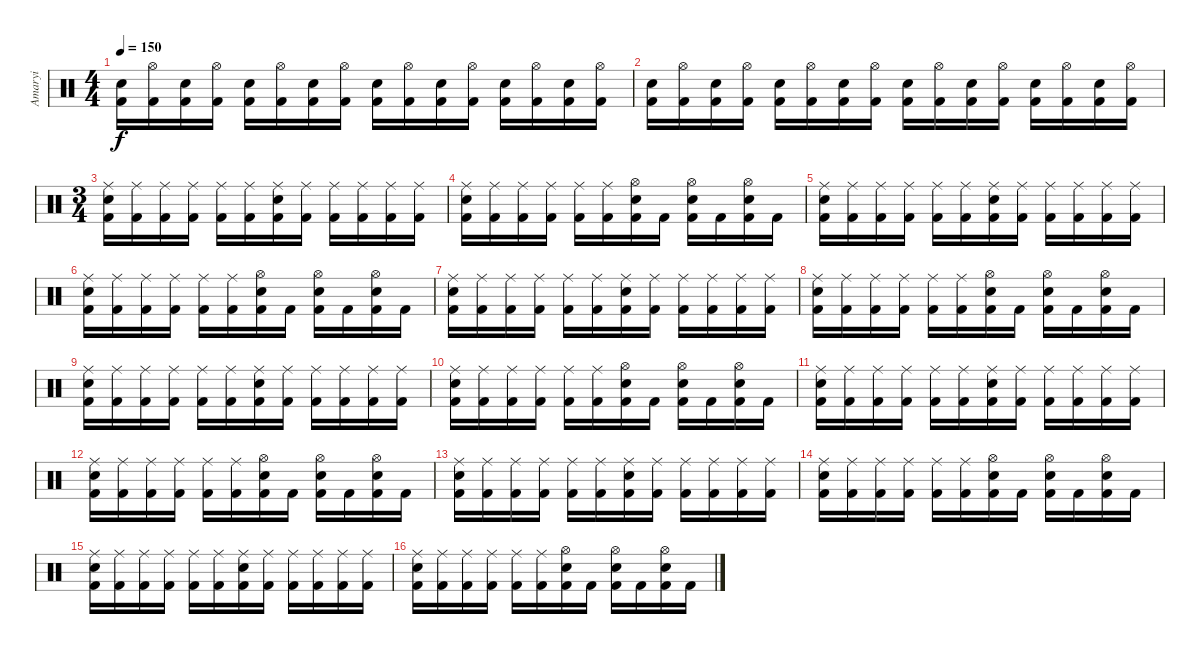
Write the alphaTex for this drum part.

\track ("Amaryi" "Amaryi") {instrument percussion}
\staff {score}
\articulation defaults
\ts (4 4)
\tempo 150
\clef neutral
\ks c
("Snare (hit) 2" "Kick (hit) 2").16{dy f} ("Hi-Hat (open)" "Kick (hit) 2").16 ("Snare (hit) 2" "Kick (hit) 2").16 ("Hi-Hat (open)" "Kick (hit) 2").16 ("Snare (hit) 2" "Kick (hit) 2").16 ("Hi-Hat (open)" "Kick (hit) 2").16 ("Snare (hit) 2" "Kick (hit) 2").16 ("Hi-Hat (open)" "Kick (hit) 2").16 ("Snare (hit) 2" "Kick (hit) 2").16 ("Hi-Hat (open)" "Kick (hit) 2").16 ("Snare (hit) 2" "Kick (hit) 2").16 ("Hi-Hat (open)" "Kick (hit) 2").16 ("Snare (hit) 2" "Kick (hit) 2").16 ("Hi-Hat (open)" "Kick (hit) 2").16 ("Snare (hit) 2" "Kick (hit) 2").16 ("Hi-Hat (open)" "Kick (hit) 2").16 |
("Snare (hit) 2" "Kick (hit) 2").16 ("Hi-Hat (open)" "Kick (hit) 2").16 ("Snare (hit) 2" "Kick (hit) 2").16 ("Hi-Hat (open)" "Kick (hit) 2").16 ("Snare (hit) 2" "Kick (hit) 2").16 ("Hi-Hat (open)" "Kick (hit) 2").16 ("Snare (hit) 2" "Kick (hit) 2").16 ("Hi-Hat (open)" "Kick (hit) 2").16 ("Snare (hit) 2" "Kick (hit) 2").16 ("Hi-Hat (open)" "Kick (hit) 2").16 ("Snare (hit) 2" "Kick (hit) 2").16 ("Hi-Hat (open)" "Kick (hit) 2").16 ("Snare (hit) 2" "Kick (hit) 2").16 ("Hi-Hat (open)" "Kick (hit) 2").16 ("Snare (hit) 2" "Kick (hit) 2").16 ("Hi-Hat (open)" "Kick (hit) 2").16 |
\ts (3 4)
("Ride (middle)" "Snare (hit) 2" "Kick (hit) 2").16 ("Ride (middle)" "Kick (hit) 2").16 ("Ride (middle)" "Kick (hit) 2").16 ("Ride (middle)" "Kick (hit) 2").16 ("Ride (middle)" "Kick (hit) 2").16 ("Ride (middle)" "Kick (hit) 2").16 ("Ride (middle)" "Snare (hit) 2" "Kick (hit) 2").16 ("Ride (middle)" "Kick (hit) 2").16 ("Ride (middle)" "Kick (hit) 2").16 ("Ride (middle)" "Kick (hit) 2").16 ("Ride (middle)" "Kick (hit) 2").16 ("Ride (middle)" "Kick (hit) 2").16 |
("Ride (middle)" "Snare (hit) 2" "Kick (hit) 2").16 ("Ride (middle)" "Kick (hit) 2").16 ("Ride (middle)" "Kick (hit) 2").16 ("Ride (middle)" "Kick (hit) 2").16 ("Ride (middle)" "Kick (hit) 2").16 ("Ride (middle)" "Kick (hit) 2").16 ("Hi-Hat (open)" "Snare (hit) 2" "Kick (hit) 2").16 "Kick (hit) 2".16 ("Hi-Hat (open)" "Snare (hit) 2" "Kick (hit) 2").16 "Kick (hit) 2".16 ("Hi-Hat (open)" "Snare (hit) 2" "Kick (hit) 2").16 "Kick (hit) 2".16 |
("Ride (middle)" "Snare (hit) 2" "Kick (hit) 2").16 ("Ride (middle)" "Kick (hit) 2").16 ("Ride (middle)" "Kick (hit) 2").16 ("Ride (middle)" "Kick (hit) 2").16 ("Ride (middle)" "Kick (hit) 2").16 ("Ride (middle)" "Kick (hit) 2").16 ("Ride (middle)" "Snare (hit) 2" "Kick (hit) 2").16 ("Ride (middle)" "Kick (hit) 2").16 ("Ride (middle)" "Kick (hit) 2").16 ("Ride (middle)" "Kick (hit) 2").16 ("Ride (middle)" "Kick (hit) 2").16 ("Ride (middle)" "Kick (hit) 2").16 |
("Ride (middle)" "Snare (hit) 2" "Kick (hit) 2").16 ("Ride (middle)" "Kick (hit) 2").16 ("Ride (middle)" "Kick (hit) 2").16 ("Ride (middle)" "Kick (hit) 2").16 ("Ride (middle)" "Kick (hit) 2").16 ("Ride (middle)" "Kick (hit) 2").16 ("Hi-Hat (open)" "Snare (hit) 2" "Kick (hit) 2").16 "Kick (hit) 2".16 ("Hi-Hat (open)" "Snare (hit) 2" "Kick (hit) 2").16 "Kick (hit) 2".16 ("Hi-Hat (open)" "Snare (hit) 2" "Kick (hit) 2").16 "Kick (hit) 2".16 |
("Ride (middle)" "Snare (hit) 2" "Kick (hit) 2").16 ("Ride (middle)" "Kick (hit) 2").16 ("Ride (middle)" "Kick (hit) 2").16 ("Ride (middle)" "Kick (hit) 2").16 ("Ride (middle)" "Kick (hit) 2").16 ("Ride (middle)" "Kick (hit) 2").16 ("Ride (middle)" "Snare (hit) 2" "Kick (hit) 2").16 ("Ride (middle)" "Kick (hit) 2").16 ("Ride (middle)" "Kick (hit) 2").16 ("Ride (middle)" "Kick (hit) 2").16 ("Ride (middle)" "Kick (hit) 2").16 ("Ride (middle)" "Kick (hit) 2").16 |
("Ride (middle)" "Snare (hit) 2" "Kick (hit) 2").16 ("Ride (middle)" "Kick (hit) 2").16 ("Ride (middle)" "Kick (hit) 2").16 ("Ride (middle)" "Kick (hit) 2").16 ("Ride (middle)" "Kick (hit) 2").16 ("Ride (middle)" "Kick (hit) 2").16 ("Hi-Hat (open)" "Snare (hit) 2" "Kick (hit) 2").16 "Kick (hit) 2".16 ("Hi-Hat (open)" "Snare (hit) 2" "Kick (hit) 2").16 "Kick (hit) 2".16 ("Hi-Hat (open)" "Snare (hit) 2" "Kick (hit) 2").16 "Kick (hit) 2".16 |
("Ride (middle)" "Snare (hit) 2" "Kick (hit) 2").16 ("Ride (middle)" "Kick (hit) 2").16 ("Ride (middle)" "Kick (hit) 2").16 ("Ride (middle)" "Kick (hit) 2").16 ("Ride (middle)" "Kick (hit) 2").16 ("Ride (middle)" "Kick (hit) 2").16 ("Ride (middle)" "Snare (hit) 2" "Kick (hit) 2").16 ("Ride (middle)" "Kick (hit) 2").16 ("Ride (middle)" "Kick (hit) 2").16 ("Ride (middle)" "Kick (hit) 2").16 ("Ride (middle)" "Kick (hit) 2").16 ("Ride (middle)" "Kick (hit) 2").16 |
("Ride (middle)" "Snare (hit) 2" "Kick (hit) 2").16 ("Ride (middle)" "Kick (hit) 2").16 ("Ride (middle)" "Kick (hit) 2").16 ("Ride (middle)" "Kick (hit) 2").16 ("Ride (middle)" "Kick (hit) 2").16 ("Ride (middle)" "Kick (hit) 2").16 ("Hi-Hat (open)" "Snare (hit) 2" "Kick (hit) 2").16 "Kick (hit) 2".16 ("Hi-Hat (open)" "Snare (hit) 2" "Kick (hit) 2").16 "Kick (hit) 2".16 ("Hi-Hat (open)" "Snare (hit) 2" "Kick (hit) 2").16 "Kick (hit) 2".16 |
("Ride (middle)" "Snare (hit) 2" "Kick (hit) 2").16 ("Ride (middle)" "Kick (hit) 2").16 ("Ride (middle)" "Kick (hit) 2").16 ("Ride (middle)" "Kick (hit) 2").16 ("Ride (middle)" "Kick (hit) 2").16 ("Ride (middle)" "Kick (hit) 2").16 ("Ride (middle)" "Snare (hit) 2" "Kick (hit) 2").16 ("Ride (middle)" "Kick (hit) 2").16 ("Ride (middle)" "Kick (hit) 2").16 ("Ride (middle)" "Kick (hit) 2").16 ("Ride (middle)" "Kick (hit) 2").16 ("Ride (middle)" "Kick (hit) 2").16 |
("Ride (middle)" "Snare (hit) 2" "Kick (hit) 2").16 ("Ride (middle)" "Kick (hit) 2").16 ("Ride (middle)" "Kick (hit) 2").16 ("Ride (middle)" "Kick (hit) 2").16 ("Ride (middle)" "Kick (hit) 2").16 ("Ride (middle)" "Kick (hit) 2").16 ("Hi-Hat (open)" "Snare (hit) 2" "Kick (hit) 2").16 "Kick (hit) 2".16 ("Hi-Hat (open)" "Snare (hit) 2" "Kick (hit) 2").16 "Kick (hit) 2".16 ("Hi-Hat (open)" "Snare (hit) 2" "Kick (hit) 2").16 "Kick (hit) 2".16 |
("Ride (middle)" "Snare (hit) 2" "Kick (hit) 2").16 ("Ride (middle)" "Kick (hit) 2").16 ("Ride (middle)" "Kick (hit) 2").16 ("Ride (middle)" "Kick (hit) 2").16 ("Ride (middle)" "Kick (hit) 2").16 ("Ride (middle)" "Kick (hit) 2").16 ("Ride (middle)" "Snare (hit) 2" "Kick (hit) 2").16 ("Ride (middle)" "Kick (hit) 2").16 ("Ride (middle)" "Kick (hit) 2").16 ("Ride (middle)" "Kick (hit) 2").16 ("Ride (middle)" "Kick (hit) 2").16 ("Ride (middle)" "Kick (hit) 2").16 |
("Ride (middle)" "Snare (hit) 2" "Kick (hit) 2").16 ("Ride (middle)" "Kick (hit) 2").16 ("Ride (middle)" "Kick (hit) 2").16 ("Ride (middle)" "Kick (hit) 2").16 ("Ride (middle)" "Kick (hit) 2").16 ("Ride (middle)" "Kick (hit) 2").16 ("Hi-Hat (open)" "Snare (hit) 2" "Kick (hit) 2").16 "Kick (hit) 2".16 ("Hi-Hat (open)" "Snare (hit) 2" "Kick (hit) 2").16 "Kick (hit) 2".16 ("Hi-Hat (open)" "Snare (hit) 2" "Kick (hit) 2").16 "Kick (hit) 2".16 |
("Ride (middle)" "Snare (hit) 2" "Kick (hit) 2").16 ("Ride (middle)" "Kick (hit) 2").16 ("Ride (middle)" "Kick (hit) 2").16 ("Ride (middle)" "Kick (hit) 2").16 ("Ride (middle)" "Kick (hit) 2").16 ("Ride (middle)" "Kick (hit) 2").16 ("Ride (middle)" "Snare (hit) 2" "Kick (hit) 2").16 ("Ride (middle)" "Kick (hit) 2").16 ("Ride (middle)" "Kick (hit) 2").16 ("Ride (middle)" "Kick (hit) 2").16 ("Ride (middle)" "Kick (hit) 2").16 ("Ride (middle)" "Kick (hit) 2").16 |
("Ride (middle)" "Snare (hit) 2" "Kick (hit) 2").16 ("Ride (middle)" "Kick (hit) 2").16 ("Ride (middle)" "Kick (hit) 2").16 ("Ride (middle)" "Kick (hit) 2").16 ("Ride (middle)" "Kick (hit) 2").16 ("Ride (middle)" "Kick (hit) 2").16 ("Hi-Hat (open)" "Snare (hit) 2" "Kick (hit) 2").16 "Kick (hit) 2".16 ("Hi-Hat (open)" "Snare (hit) 2" "Kick (hit) 2").16 "Kick (hit) 2".16 ("Hi-Hat (open)" "Snare (hit) 2" "Kick (hit) 2").16 "Kick (hit) 2".16
